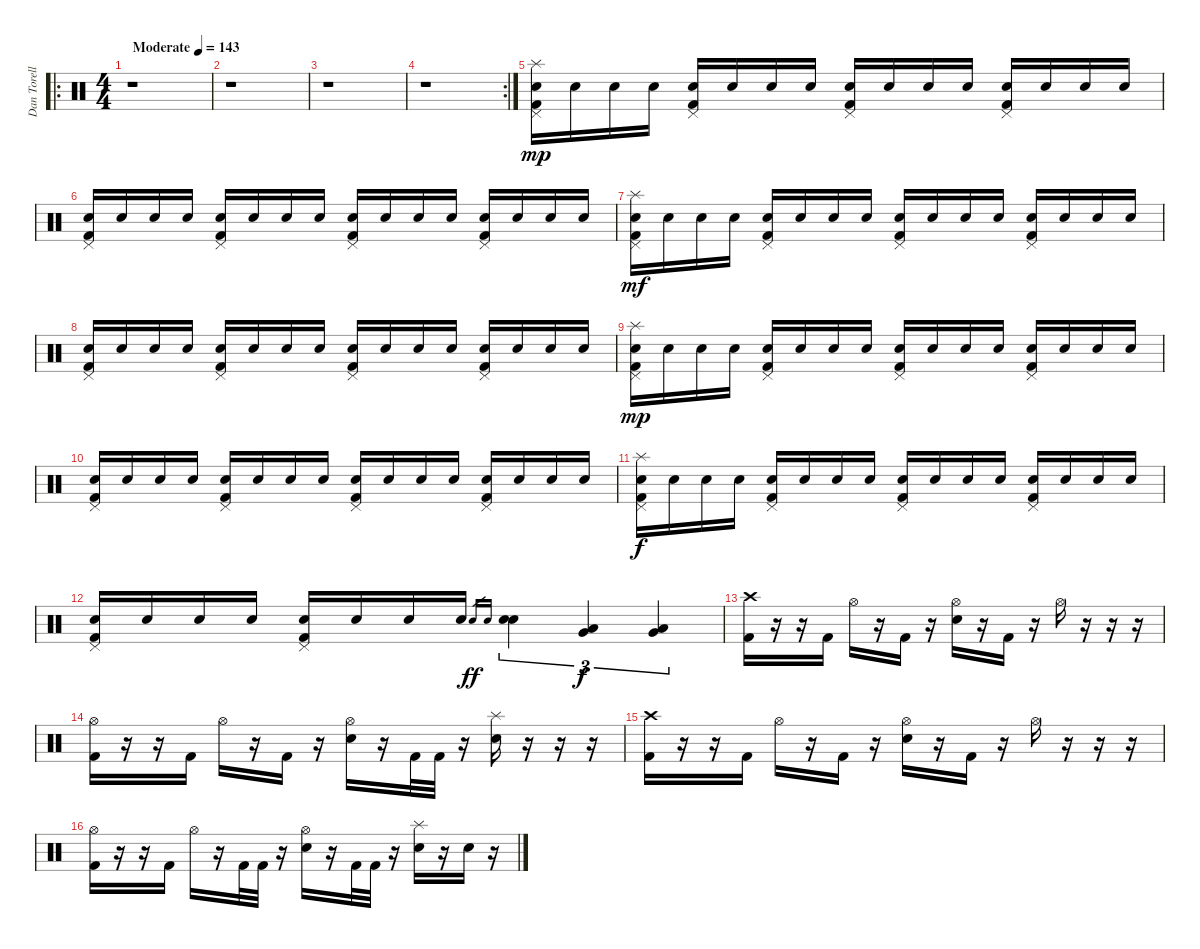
\track ("Dan Torelli" "Dan Torell") {instrument percussion}
\staff {score}
\articulation defaults
\ro
\ts (4 4)
\tempo (143 "Moderate")
\clef neutral
\ks c
r.1{dy mp} |
r.1 |
r.1 |
\rc 2
r.1 |
("Splash (hit)" "Pedal Hi-Hat (hit)" "Snare (hit) 2" "Kick (hit) 2").16 "Snare (hit) 2".16 "Snare (hit) 2".16 "Snare (hit) 2".16 ("Pedal Hi-Hat (hit)" "Snare (hit) 2" "Kick (hit) 2").16 "Snare (hit) 2".16 "Snare (hit) 2".16 "Snare (hit) 2".16 ("Pedal Hi-Hat (hit)" "Snare (hit) 2" "Kick (hit) 2").16 "Snare (hit) 2".16 "Snare (hit) 2".16 "Snare (hit) 2".16 ("Pedal Hi-Hat (hit)" "Snare (hit) 2" "Kick (hit) 2").16 "Snare (hit) 2".16 "Snare (hit) 2".16 "Snare (hit) 2".16 |
("Pedal Hi-Hat (hit)" "Snare (hit) 2" "Kick (hit) 2").16 "Snare (hit) 2".16 "Snare (hit) 2".16 "Snare (hit) 2".16 ("Pedal Hi-Hat (hit)" "Snare (hit) 2" "Kick (hit) 2").16 "Snare (hit) 2".16 "Snare (hit) 2".16 "Snare (hit) 2".16 ("Pedal Hi-Hat (hit)" "Snare (hit) 2" "Kick (hit) 2").16 "Snare (hit) 2".16 "Snare (hit) 2".16 "Snare (hit) 2".16 ("Pedal Hi-Hat (hit)" "Snare (hit) 2" "Kick (hit) 2").16 "Snare (hit) 2".16 "Snare (hit) 2".16 "Snare (hit) 2".16 |
("Splash (hit)" "Pedal Hi-Hat (hit)" "Snare (hit) 2" "Kick (hit) 2").16{dy mf} "Snare (hit) 2".16 "Snare (hit) 2".16 "Snare (hit) 2".16 ("Pedal Hi-Hat (hit)" "Snare (hit) 2" "Kick (hit) 2").16 "Snare (hit) 2".16 "Snare (hit) 2".16 "Snare (hit) 2".16 ("Pedal Hi-Hat (hit)" "Snare (hit) 2" "Kick (hit) 2").16 "Snare (hit) 2".16 "Snare (hit) 2".16 "Snare (hit) 2".16 ("Pedal Hi-Hat (hit)" "Snare (hit) 2" "Kick (hit) 2").16 "Snare (hit) 2".16 "Snare (hit) 2".16 "Snare (hit) 2".16 |
("Pedal Hi-Hat (hit)" "Snare (hit) 2" "Kick (hit) 2").16 "Snare (hit) 2".16 "Snare (hit) 2".16 "Snare (hit) 2".16 ("Pedal Hi-Hat (hit)" "Snare (hit) 2" "Kick (hit) 2").16 "Snare (hit) 2".16 "Snare (hit) 2".16 "Snare (hit) 2".16 ("Pedal Hi-Hat (hit)" "Snare (hit) 2" "Kick (hit) 2").16 "Snare (hit) 2".16 "Snare (hit) 2".16 "Snare (hit) 2".16 ("Pedal Hi-Hat (hit)" "Snare (hit) 2" "Kick (hit) 2").16 "Snare (hit) 2".16 "Snare (hit) 2".16 "Snare (hit) 2".16 |
("Splash (hit)" "Pedal Hi-Hat (hit)" "Snare (hit) 2" "Kick (hit) 2").16{dy mp} "Snare (hit) 2".16 "Snare (hit) 2".16 "Snare (hit) 2".16 ("Pedal Hi-Hat (hit)" "Snare (hit) 2" "Kick (hit) 2").16 "Snare (hit) 2".16 "Snare (hit) 2".16 "Snare (hit) 2".16 ("Pedal Hi-Hat (hit)" "Snare (hit) 2" "Kick (hit) 2").16 "Snare (hit) 2".16 "Snare (hit) 2".16 "Snare (hit) 2".16 ("Pedal Hi-Hat (hit)" "Snare (hit) 2" "Kick (hit) 2").16 "Snare (hit) 2".16 "Snare (hit) 2".16 "Snare (hit) 2".16 |
("Pedal Hi-Hat (hit)" "Snare (hit) 2" "Kick (hit) 2").16 "Snare (hit) 2".16 "Snare (hit) 2".16 "Snare (hit) 2".16 ("Pedal Hi-Hat (hit)" "Snare (hit) 2" "Kick (hit) 2").16 "Snare (hit) 2".16 "Snare (hit) 2".16 "Snare (hit) 2".16 ("Pedal Hi-Hat (hit)" "Snare (hit) 2" "Kick (hit) 2").16 "Snare (hit) 2".16 "Snare (hit) 2".16 "Snare (hit) 2".16 ("Pedal Hi-Hat (hit)" "Snare (hit) 2" "Kick (hit) 2").16 "Snare (hit) 2".16 "Snare (hit) 2".16 "Snare (hit) 2".16 |
("Splash (hit)" "Pedal Hi-Hat (hit)" "Snare (hit) 2" "Kick (hit) 2").16{dy f} "Snare (hit) 2".16 "Snare (hit) 2".16 "Snare (hit) 2".16 ("Pedal Hi-Hat (hit)" "Snare (hit) 2" "Kick (hit) 2").16 "Snare (hit) 2".16 "Snare (hit) 2".16 "Snare (hit) 2".16 ("Pedal Hi-Hat (hit)" "Snare (hit) 2" "Kick (hit) 2").16 "Snare (hit) 2".16 "Snare (hit) 2".16 "Snare (hit) 2".16 ("Pedal Hi-Hat (hit)" "Snare (hit) 2" "Kick (hit) 2").16 "Snare (hit) 2".16 "Snare (hit) 2".16 "Snare (hit) 2".16 |
("Pedal Hi-Hat (hit)" "Snare (hit) 2" "Kick (hit) 2").16 "Snare (hit) 2".16 "Snare (hit) 2".16 "Snare (hit) 2".16 ("Pedal Hi-Hat (hit)" "Snare (hit) 2" "Kick (hit) 2").16 "Snare (hit) 2".16 "Snare (hit) 2".16 "Snare (hit) 2".16 "Electric Snare (hit)".16{gr dy ff} "Electric Snare (hit)".16{gr} ("Electric Snare (hit)" "Electric Snare (hit)").4{tu (3 2)} ("Low Tom (hit)" "Very Low Tom (hit)").4{tu (3 2) dy f} ("Very Low Tom (hit)" "Low Floor Tom (hit)").4{tu (3 2)} |
("Crash high (hit)" "Kick (hit) 2").16 r.16 r.16 "Kick (hit) 2".16 "Hi-Hat (open)".16 r.16 "Kick (hit) 2".16 r.16 ("Hi-Hat (open)" "Snare (hit) 2").16 r.16 "Kick (hit) 2".16 r.16 "Hi-Hat (open)".16 r.16 r.16 r.16 |
("Hi-Hat (open)" "Kick (hit) 2").16 r.16 r.16 "Kick (hit) 2".16 "Hi-Hat (open)".16 r.16 "Kick (hit) 2".16 r.16 ("Hi-Hat (open)" "Snare (hit) 2").16 r.16 "Kick (hit) 2".32 "Kick (hit) 2".32 r.16 ("Splash (hit)" "Snare (hit) 2").16 r.16 r.16 r.16 |
("Crash high (hit)" "Kick (hit) 2").16 r.16 r.16 "Kick (hit) 2".16 "Hi-Hat (open)".16 r.16 "Kick (hit) 2".16 r.16 ("Hi-Hat (open)" "Snare (hit) 2").16 r.16 "Kick (hit) 2".16 r.16 "Hi-Hat (open)".16 r.16 r.16 r.16 |
("Hi-Hat (open)" "Kick (hit) 2").16 r.16 r.16 "Kick (hit) 2".16 "Hi-Hat (open)".16 r.16 "Kick (hit) 2".32 "Kick (hit) 2".32 r.16 ("Hi-Hat (open)" "Snare (hit) 2").16 r.16 "Kick (hit) 2".32 "Kick (hit) 2".32 r.16 ("Splash (hit)" "Snare (hit) 2").16 r.16 "Snare (hit) 2".16 r.16
